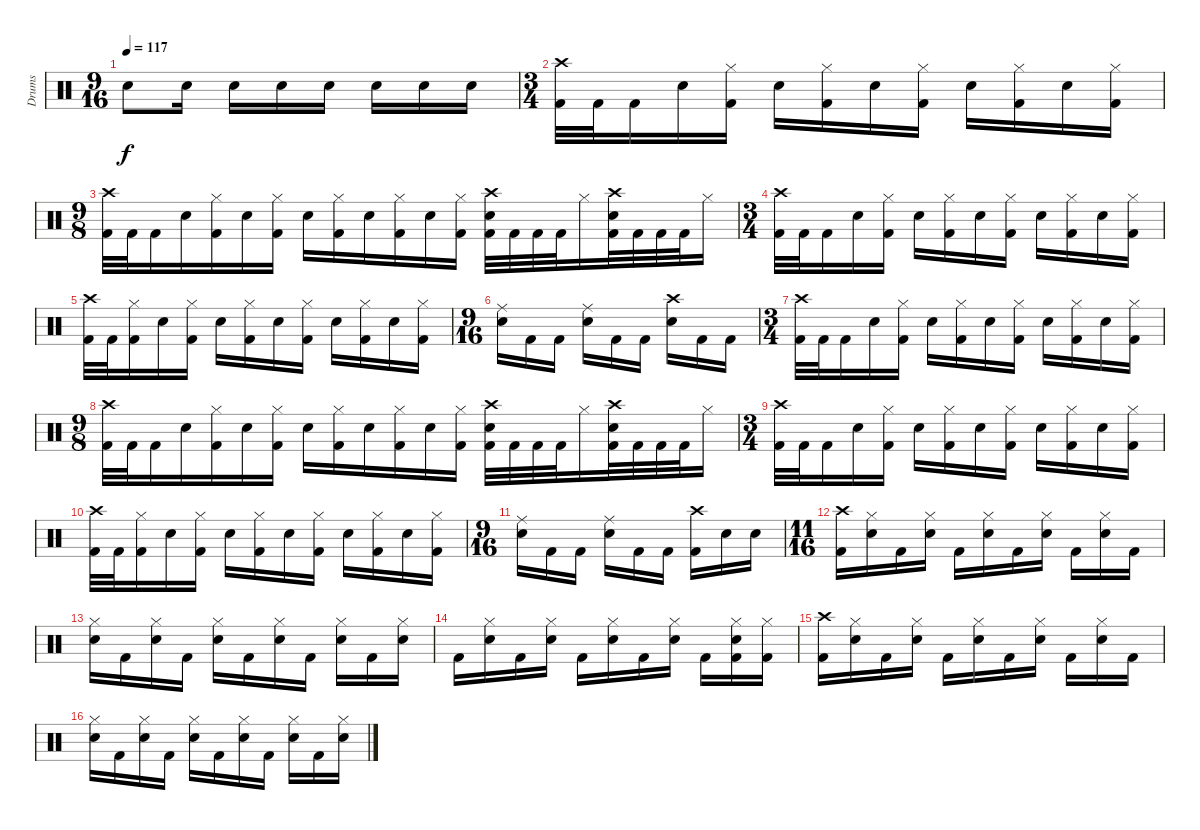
\track ("Drums" "Drums") {instrument percussion}
\staff {score}
\articulation defaults
\ts (9 16)
\tempo 117
\clef neutral
\ks c "Electric Snare (hit)".8{dy f} "Electric Snare (hit)".16 "Electric Snare (hit)".16 "Electric Snare (hit)".16 "Electric Snare (hit)".16 "Electric Snare (hit)".16 "Electric Snare (hit)".16 "Electric Snare (hit)".16
|
\ts (3 4)
("Crash high (hit)" "Kick (hit) 2").32 "Kick (hit) 2".32 "Kick (hit) 2".16 "Electric Snare (hit)".16 ("Hi-Hat (closed)" "Kick (hit) 2").16 "Electric Snare (hit)".16 ("Hi-Hat (closed)" "Kick (hit) 2").16 "Electric Snare (hit)".16 ("Hi-Hat (closed)" "Kick (hit) 2").16 "Electric Snare (hit)".16 ("Hi-Hat (closed)" "Kick (hit) 2").16 "Electric Snare (hit)".16 ("Hi-Hat (closed)" "Kick (hit) 2").16 |
\ts (9 8)
("Crash high (hit)" "Kick (hit) 2").32 "Kick (hit) 2".32 "Kick (hit) 2".16 "Electric Snare (hit)".16 ("Hi-Hat (closed)" "Kick (hit) 2").16 "Electric Snare (hit)".16 ("Hi-Hat (closed)" "Kick (hit) 2").16 "Electric Snare (hit)".16 ("Hi-Hat (closed)" "Kick (hit) 2").16 "Electric Snare (hit)".16 ("Hi-Hat (closed)" "Kick (hit) 2").16 "Electric Snare (hit)".16 ("Hi-Hat (closed)" "Kick (hit) 2").16 ("Crash high (hit)" "Electric Snare (hit)" "Kick (hit) 2").32 "Kick (hit) 2".32 "Kick (hit) 2".32 "Kick (hit) 2".32 "Hi-Hat (closed)".16 ("Crash high (hit)" "Electric Snare (hit)" "Kick (hit) 2").32 "Kick (hit) 2".32 "Kick (hit) 2".32 "Kick (hit) 2".32 "Hi-Hat (closed)".16 |
\ts (3 4)
("Crash high (hit)" "Kick (hit) 2").32 "Kick (hit) 2".32 "Kick (hit) 2".16 "Electric Snare (hit)".16 ("Hi-Hat (closed)" "Kick (hit) 2").16 "Electric Snare (hit)".16 ("Hi-Hat (closed)" "Kick (hit) 2").16 "Electric Snare (hit)".16 ("Hi-Hat (closed)" "Kick (hit) 2").16 "Electric Snare (hit)".16 ("Hi-Hat (closed)" "Kick (hit) 2").16 "Electric Snare (hit)".16 ("Hi-Hat (closed)" "Kick (hit) 2").16 |
("Crash high (hit)" "Kick (hit) 2").32 "Kick (hit) 2".32 ("Hi-Hat (closed)" "Kick (hit) 2").16 "Electric Snare (hit)".16 ("Hi-Hat (closed)" "Kick (hit) 2").16 "Electric Snare (hit)".16 ("Hi-Hat (closed)" "Kick (hit) 2").16 "Electric Snare (hit)".16 ("Hi-Hat (closed)" "Kick (hit) 2").16 "Electric Snare (hit)".16 ("Hi-Hat (closed)" "Kick (hit) 2").16 "Electric Snare (hit)".16 ("Hi-Hat (closed)" "Kick (hit) 2").16 |
\ts (9 16)
("Ride (middle)" "Electric Snare (hit)").16 "Kick (hit) 2".16 "Kick (hit) 2".16 ("Ride (middle)" "Electric Snare (hit)").16 "Kick (hit) 2".16 "Kick (hit) 2".16 ("Crash high (hit)" "Electric Snare (hit)").16 "Kick (hit) 2".16 "Kick (hit) 2".16 |
\ts (3 4)
("Crash high (hit)" "Kick (hit) 2").32 "Kick (hit) 2".32 "Kick (hit) 2".16 "Electric Snare (hit)".16 ("Hi-Hat (closed)" "Kick (hit) 2").16 "Electric Snare (hit)".16 ("Hi-Hat (closed)" "Kick (hit) 2").16 "Electric Snare (hit)".16 ("Hi-Hat (closed)" "Kick (hit) 2").16 "Electric Snare (hit)".16 ("Hi-Hat (closed)" "Kick (hit) 2").16 "Electric Snare (hit)".16 ("Hi-Hat (closed)" "Kick (hit) 2").16 |
\ts (9 8)
("Crash high (hit)" "Kick (hit) 2").32 "Kick (hit) 2".32 "Kick (hit) 2".16 "Electric Snare (hit)".16 ("Hi-Hat (closed)" "Kick (hit) 2").16 "Electric Snare (hit)".16 ("Hi-Hat (closed)" "Kick (hit) 2").16 "Electric Snare (hit)".16 ("Hi-Hat (closed)" "Kick (hit) 2").16 "Electric Snare (hit)".16 ("Hi-Hat (closed)" "Kick (hit) 2").16 "Electric Snare (hit)".16 ("Hi-Hat (closed)" "Kick (hit) 2").16 ("Crash high (hit)" "Electric Snare (hit)" "Kick (hit) 2").32 "Kick (hit) 2".32 "Kick (hit) 2".32 "Kick (hit) 2".32 "Hi-Hat (closed)".16 ("Crash high (hit)" "Electric Snare (hit)" "Kick (hit) 2").32 "Kick (hit) 2".32 "Kick (hit) 2".32 "Kick (hit) 2".32 "Hi-Hat (closed)".16 |
\ts (3 4)
("Crash high (hit)" "Kick (hit) 2").32 "Kick (hit) 2".32 "Kick (hit) 2".16 "Electric Snare (hit)".16 ("Hi-Hat (closed)" "Kick (hit) 2").16 "Electric Snare (hit)".16 ("Hi-Hat (closed)" "Kick (hit) 2").16 "Electric Snare (hit)".16 ("Hi-Hat (closed)" "Kick (hit) 2").16 "Electric Snare (hit)".16 ("Hi-Hat (closed)" "Kick (hit) 2").16 "Electric Snare (hit)".16 ("Hi-Hat (closed)" "Kick (hit) 2").16 |
("Crash high (hit)" "Kick (hit) 2").32 "Kick (hit) 2".32 ("Hi-Hat (closed)" "Kick (hit) 2").16 "Electric Snare (hit)".16 ("Hi-Hat (closed)" "Kick (hit) 2").16 "Electric Snare (hit)".16 ("Hi-Hat (closed)" "Kick (hit) 2").16 "Electric Snare (hit)".16 ("Hi-Hat (closed)" "Kick (hit) 2").16 "Electric Snare (hit)".16 ("Hi-Hat (closed)" "Kick (hit) 2").16 "Electric Snare (hit)".16 ("Hi-Hat (closed)" "Kick (hit) 2").16 |
\ts (9 16)
("Ride (middle)" "Electric Snare (hit)").16 "Kick (hit) 2".16 "Kick (hit) 2".16 ("Ride (middle)" "Electric Snare (hit)").16 "Kick (hit) 2".16 "Kick (hit) 2".16 ("Crash high (hit)" "Kick (hit) 2").16 "Electric Snare (hit)".16 "Electric Snare (hit)".16 |
\ts (11 16)
("Crash high (hit)" "Kick (hit) 2").16 ("Hi-Hat (closed)" "Electric Snare (hit)").16 "Kick (hit) 2".16 ("Hi-Hat (closed)" "Electric Snare (hit)").16 "Kick (hit) 2".16 ("Hi-Hat (closed)" "Electric Snare (hit)").16 "Kick (hit) 2".16 ("Hi-Hat (closed)" "Electric Snare (hit)").16 "Kick (hit) 2".16 ("Hi-Hat (closed)" "Electric Snare (hit)").16 "Kick (hit) 2".16 |
("Hi-Hat (closed)" "Electric Snare (hit)").16 "Kick (hit) 2".16 ("Hi-Hat (closed)" "Electric Snare (hit)").16 "Kick (hit) 2".16 ("Hi-Hat (closed)" "Electric Snare (hit)").16 "Kick (hit) 2".16 ("Hi-Hat (closed)" "Electric Snare (hit)").16 "Kick (hit) 2".16 ("Hi-Hat (closed)" "Electric Snare (hit)").16 "Kick (hit) 2".16 ("Hi-Hat (closed)" "Electric Snare (hit)").16 |
"Kick (hit) 2".16 ("Hi-Hat (closed)" "Electric Snare (hit)").16 "Kick (hit) 2".16 ("Hi-Hat (closed)" "Electric Snare (hit)").16 "Kick (hit) 2".16 ("Hi-Hat (closed)" "Electric Snare (hit)").16 "Kick (hit) 2".16 ("Hi-Hat (closed)" "Electric Snare (hit)").16 "Kick (hit) 2".16 ("Hi-Hat (closed)" "Electric Snare (hit)" "Kick (hit) 2").16 ("Hi-Hat (closed)" "Kick (hit) 2").16 |
("Crash high (hit)" "Kick (hit) 2").16 ("Hi-Hat (closed)" "Electric Snare (hit)").16 "Kick (hit) 2".16 ("Hi-Hat (closed)" "Electric Snare (hit)").16 "Kick (hit) 2".16 ("Hi-Hat (closed)" "Electric Snare (hit)").16 "Kick (hit) 2".16 ("Hi-Hat (closed)" "Electric Snare (hit)").16 "Kick (hit) 2".16 ("Hi-Hat (closed)" "Electric Snare (hit)").16 "Kick (hit) 2".16 |
("Hi-Hat (closed)" "Electric Snare (hit)").16 "Kick (hit) 2".16 ("Hi-Hat (closed)" "Electric Snare (hit)").16 "Kick (hit) 2".16 ("Hi-Hat (closed)" "Electric Snare (hit)").16 "Kick (hit) 2".16 ("Hi-Hat (closed)" "Electric Snare (hit)").16 "Kick (hit) 2".16 ("Hi-Hat (closed)" "Electric Snare (hit)").16 "Kick (hit) 2".16 ("Hi-Hat (closed)" "Electric Snare (hit)").16
